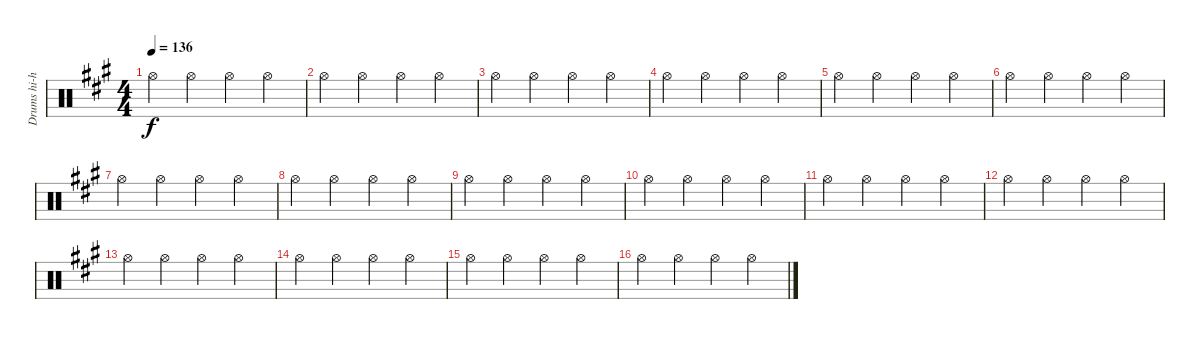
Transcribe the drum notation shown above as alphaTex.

\track ("Drums hi-hat" "Drums hi-h") {instrument percussion}
\staff {score}
\articulation defaults
\ts (4 4)
\tempo 136
\clef neutral
\ks a "Hi-Hat (open)".4{dy f} "Hi-Hat (open)".4 "Hi-Hat (open)".4 "Hi-Hat (open)".4
|
"Hi-Hat (open)".4 "Hi-Hat (open)".4 "Hi-Hat (open)".4 "Hi-Hat (open)".4 |
"Hi-Hat (open)".4 "Hi-Hat (open)".4 "Hi-Hat (open)".4 "Hi-Hat (open)".4 |
"Hi-Hat (open)".4 "Hi-Hat (open)".4 "Hi-Hat (open)".4 "Hi-Hat (open)".4 |
"Hi-Hat (open)".4 "Hi-Hat (open)".4 "Hi-Hat (open)".4 "Hi-Hat (open)".4 |
"Hi-Hat (open)".4 "Hi-Hat (open)".4 "Hi-Hat (open)".4 "Hi-Hat (open)".4 |
"Hi-Hat (open)".4 "Hi-Hat (open)".4 "Hi-Hat (open)".4 "Hi-Hat (open)".4 |
"Hi-Hat (open)".4 "Hi-Hat (open)".4 "Hi-Hat (open)".4 "Hi-Hat (open)".4 |
"Hi-Hat (open)".4 "Hi-Hat (open)".4 "Hi-Hat (open)".4 "Hi-Hat (open)".4 |
"Hi-Hat (open)".4 "Hi-Hat (open)".4 "Hi-Hat (open)".4 "Hi-Hat (open)".4 |
"Hi-Hat (open)".4 "Hi-Hat (open)".4 "Hi-Hat (open)".4 "Hi-Hat (open)".4 |
"Hi-Hat (open)".4 "Hi-Hat (open)".4 "Hi-Hat (open)".4 "Hi-Hat (open)".4 |
"Hi-Hat (open)".4 "Hi-Hat (open)".4 "Hi-Hat (open)".4 "Hi-Hat (open)".4 |
"Hi-Hat (open)".4 "Hi-Hat (open)".4 "Hi-Hat (open)".4 "Hi-Hat (open)".4 |
"Hi-Hat (open)".4 "Hi-Hat (open)".4 "Hi-Hat (open)".4 "Hi-Hat (open)".4 |
"Hi-Hat (open)".4 "Hi-Hat (open)".4 "Hi-Hat (open)".4 "Hi-Hat (open)".4
